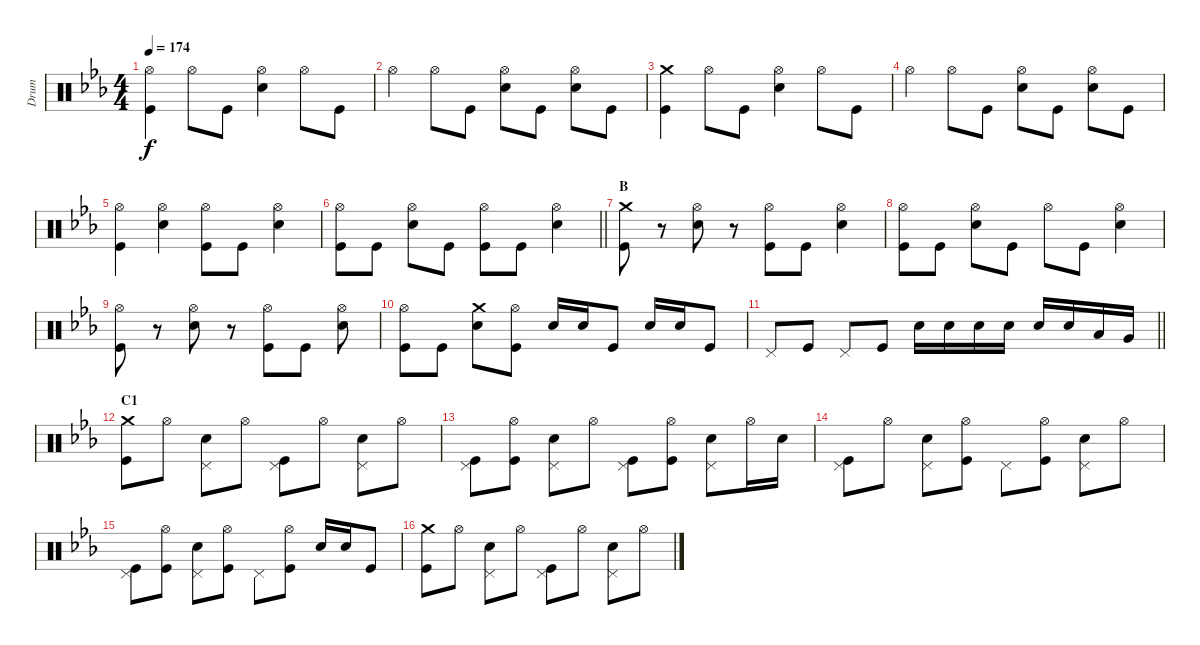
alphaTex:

\track ("Drum" "Drum") {instrument percussion}
\staff {score}
\articulation defaults
\ts (4 4)
\tempo 174
\clef neutral
\ks eb
("Hi-Hat (open)" "Kick (hit)").4{dy f} "Hi-Hat (open)".8 "Kick (hit)".8 ("Hi-Hat (open)" "Snare (hit) 2").4 "Hi-Hat (open)".8 "Kick (hit)".8 |
"Hi-Hat (open)".4 "Hi-Hat (open)".8 "Kick (hit)".8 ("Hi-Hat (open)" "Snare (hit) 2").8 "Kick (hit)".8 ("Hi-Hat (open)" "Snare (hit) 2").8 "Kick (hit)".8 |
("Crash medium (hit)" "Kick (hit)").4 "Hi-Hat (open)".8 "Kick (hit)".8 ("Hi-Hat (open)" "Snare (hit) 2").4 "Hi-Hat (open)".8 "Kick (hit)".8 |
"Hi-Hat (open)".4 "Hi-Hat (open)".8 "Kick (hit)".8 ("Hi-Hat (open)" "Snare (hit) 2").8 "Kick (hit)".8 ("Hi-Hat (open)" "Snare (hit) 2").8 "Kick (hit)".8 |
("Hi-Hat (open)" "Kick (hit)").4 ("Hi-Hat (open)" "Snare (hit) 2").4 ("Hi-Hat (open)" "Kick (hit)").8 "Kick (hit)".8 ("Hi-Hat (open)" "Snare (hit) 2").4 |
\barLineRight lightlight
("Hi-Hat (open)" "Kick (hit)").8 "Kick (hit)".8 ("Hi-Hat (open)" "Snare (hit) 2").8 "Kick (hit)".8 ("Hi-Hat (open)" "Kick (hit)").8 "Kick (hit)".8 ("Hi-Hat (open)" "Snare (hit) 2").4 |
\section ("" "B")
("Crash medium (hit)" "Kick (hit)").8 r.8 ("Hi-Hat (open)" "Snare (hit) 2").8 r.8 ("Hi-Hat (open)" "Kick (hit)").8 "Kick (hit)".8 ("Hi-Hat (open)" "Snare (hit) 2").4 |
("Hi-Hat (open)" "Kick (hit)").8 "Kick (hit)".8 ("Hi-Hat (open)" "Snare (hit) 2").8 "Kick (hit)".8 "Hi-Hat (open)".8 "Kick (hit)".8 ("Hi-Hat (open)" "Snare (hit) 2").4 |
("Hi-Hat (open)" "Kick (hit)").8 r.8 ("Hi-Hat (open)" "Snare (hit) 2").8 r.8 ("Hi-Hat (open)" "Kick (hit)").8 "Kick (hit)".8 ("Hi-Hat (open)" "Snare (hit) 2").8 |
("Hi-Hat (open)" "Kick (hit)").8 "Kick (hit)".8 ("Crash medium (hit)" "Snare (hit) 2").8 ("Hi-Hat (open)" "Kick (hit)").8 "Snare (hit) 2".16 "Snare (hit) 2".16 "Kick (hit)".8 "Snare (hit) 2".16 "Snare (hit) 2".16 "Kick (hit)".8 |
\barLineRight lightlight "Pedal Hi-Hat (hit)".8 "Kick (hit)".8 "Pedal Hi-Hat (hit)".8 "Kick (hit)".8 "Snare (hit) 2".16 "Snare (hit) 2".16 "Snare (hit) 2".16 "Snare (hit) 2".16 "Snare (hit) 2".16 "Snare (hit) 2".16 "Low Tom (hit)".16 "Very Low Tom (hit)".16
|
\section ("" "C1")
("Crash medium (hit)" "Kick (hit)").8 "Hi-Hat (open)".8 ("Pedal Hi-Hat (hit)" "Snare (hit) 2").8 "Hi-Hat (open)".8 ("Pedal Hi-Hat (hit)" "Kick (hit)").8 "Hi-Hat (open)".8 ("Pedal Hi-Hat (hit)" "Snare (hit) 2").8 "Hi-Hat (open)".8 |
("Pedal Hi-Hat (hit)" "Kick (hit)").8 ("Hi-Hat (open)" "Kick (hit)").8 ("Pedal Hi-Hat (hit)" "Snare (hit) 2").8 "Hi-Hat (open)".8 ("Pedal Hi-Hat (hit)" "Kick (hit)").8 ("Hi-Hat (open)" "Kick (hit)").8 ("Pedal Hi-Hat (hit)" "Snare (hit) 2").8 "Hi-Hat (open)".16 "Snare (hit) 2".16 |
("Pedal Hi-Hat (hit)" "Kick (hit)").8 "Hi-Hat (open)".8 ("Pedal Hi-Hat (hit)" "Snare (hit) 2").8 ("Hi-Hat (open)" "Kick (hit)").8 "Pedal Hi-Hat (hit)".8 ("Hi-Hat (open)" "Kick (hit)").8 ("Pedal Hi-Hat (hit)" "Snare (hit) 2").8 "Hi-Hat (open)".8 |
("Pedal Hi-Hat (hit)" "Kick (hit)").8 ("Hi-Hat (open)" "Kick (hit)").8 ("Pedal Hi-Hat (hit)" "Snare (hit) 2").8 ("Hi-Hat (open)" "Kick (hit)").8 "Pedal Hi-Hat (hit)".8 ("Hi-Hat (open)" "Kick (hit)").8 "Snare (hit) 2".16 "Snare (hit) 2".16 "Kick (hit)".8 |
("Crash medium (hit)" "Kick (hit)").8 "Hi-Hat (open)".8 ("Pedal Hi-Hat (hit)" "Snare (hit) 2").8 "Hi-Hat (open)".8 ("Pedal Hi-Hat (hit)" "Kick (hit)").8 "Hi-Hat (open)".8 ("Pedal Hi-Hat (hit)" "Snare (hit) 2").8 "Hi-Hat (open)".8
